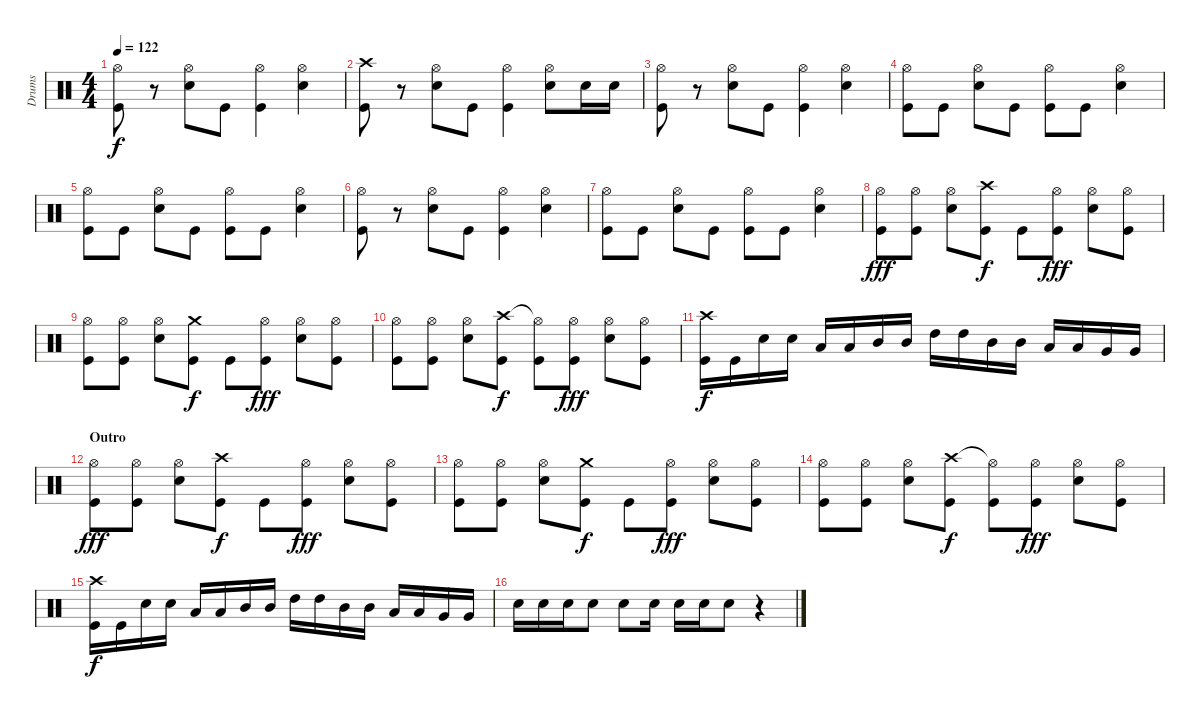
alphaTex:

\track ("Drums" "Drums") {instrument percussion}
\staff {score}
\articulation defaults
\ts (4 4)
\tempo 122
\clef neutral
\ks c
("Hi-Hat (open)" "Kick (hit)").8{dy f} r.8 ("Hi-Hat (open)" "Snare (hit) 2").8 "Kick (hit)".8 ("Hi-Hat (open)" "Kick (hit)").4 ("Hi-Hat (open)" "Snare (hit) 2").4 |
("Crash high (hit)" "Kick (hit)").8 r.8 ("Hi-Hat (open)" "Snare (hit) 2").8 "Kick (hit)".8 ("Hi-Hat (open)" "Kick (hit)").4 ("Hi-Hat (open)" "Snare (hit) 2").8 "Snare (hit) 2".16 "Snare (hit) 2".16 |
("Hi-Hat (open)" "Kick (hit)").8 r.8 ("Hi-Hat (open)" "Snare (hit) 2").8 "Kick (hit)".8 ("Hi-Hat (open)" "Kick (hit)").4 ("Hi-Hat (open)" "Snare (hit) 2").4 |
("Hi-Hat (open)" "Kick (hit)").8 "Kick (hit)".8 ("Hi-Hat (open)" "Snare (hit) 2").8 "Kick (hit)".8 ("Hi-Hat (open)" "Kick (hit)").8 "Kick (hit)".8 ("Hi-Hat (open)" "Snare (hit) 2").4 |
("Hi-Hat (open)" "Kick (hit)").8 "Kick (hit)".8 ("Hi-Hat (open)" "Snare (hit) 2").8 "Kick (hit)".8 ("Hi-Hat (open)" "Kick (hit)").8 "Kick (hit)".8 ("Hi-Hat (open)" "Snare (hit) 2").4 |
("Hi-Hat (open)" "Kick (hit)").8 r.8 ("Hi-Hat (open)" "Snare (hit) 2").8 "Kick (hit)".8 ("Hi-Hat (open)" "Kick (hit)").4 ("Hi-Hat (open)" "Snare (hit) 2").4 |
("Hi-Hat (open)" "Kick (hit)").8 "Kick (hit)".8 ("Hi-Hat (open)" "Snare (hit) 2").8 "Kick (hit)".8 ("Hi-Hat (open)" "Kick (hit)").8 "Kick (hit)".8 ("Hi-Hat (open)" "Snare (hit) 2").4 |
("Hi-Hat (open)" "Kick (hit)").8{dy fff} ("Hi-Hat (open)" "Kick (hit)").8 ("Hi-Hat (open)" "Snare (hit) 2").8 ("Crash high (hit)" "Kick (hit)").8{dy f} "Kick (hit)".8 ("Hi-Hat (open)" "Kick (hit)").8{dy fff} ("Hi-Hat (open)" "Snare (hit) 2").8 ("Hi-Hat (open)" "Kick (hit)").8 |
("Hi-Hat (open)" "Kick (hit)").8 ("Hi-Hat (open)" "Kick (hit)").8 ("Hi-Hat (open)" "Snare (hit) 2").8 ("Crash medium (hit)" "Kick (hit)").8{dy f} "Kick (hit)".8 ("Hi-Hat (open)" "Kick (hit)").8{dy fff} ("Hi-Hat (open)" "Snare (hit) 2").8 ("Hi-Hat (open)" "Kick (hit)").8 |
("Hi-Hat (open)" "Kick (hit)").8 ("Hi-Hat (open)" "Kick (hit)").8 ("Hi-Hat (open)" "Snare (hit) 2").8 ("Crash high (hit)" "Kick (hit)").8{dy f} ("Hi-Hat (open)"{t} "Kick (hit)").8 ("Hi-Hat (open)" "Kick (hit)").8{dy fff} ("Hi-Hat (open)" "Snare (hit) 2").8 ("Hi-Hat (open)" "Kick (hit)").8 |
("Crash high (hit)" "Kick (hit)").16{dy f} "Kick (hit)".16 "Snare (hit) 2".16 "Snare (hit) 2".16 "Low Tom (hit)".16 "Low Tom (hit)".16 "Mid Tom (hit)".16 "Mid Tom (hit)".16 "High Tom (hit)".16 "High Tom (hit)".16 "Mid Tom (hit)".16 "Mid Tom (hit)".16 "Low Tom (hit)".16 "Low Tom (hit)".16 "Very Low Tom (hit)".16 "Very Low Tom (hit)".16 |
\section ("" "Outro")
("Hi-Hat (open)" "Kick (hit)").8{dy fff} ("Hi-Hat (open)" "Kick (hit)").8 ("Hi-Hat (open)" "Snare (hit) 2").8 ("Crash high (hit)" "Kick (hit)").8{dy f} "Kick (hit)".8 ("Hi-Hat (open)" "Kick (hit)").8{dy fff} ("Hi-Hat (open)" "Snare (hit) 2").8 ("Hi-Hat (open)" "Kick (hit)").8 |
("Hi-Hat (open)" "Kick (hit)").8 ("Hi-Hat (open)" "Kick (hit)").8 ("Hi-Hat (open)" "Snare (hit) 2").8 ("Crash medium (hit)" "Kick (hit)").8{dy f} "Kick (hit)".8 ("Hi-Hat (open)" "Kick (hit)").8{dy fff} ("Hi-Hat (open)" "Snare (hit) 2").8 ("Hi-Hat (open)" "Kick (hit)").8 |
("Hi-Hat (open)" "Kick (hit)").8 ("Hi-Hat (open)" "Kick (hit)").8 ("Hi-Hat (open)" "Snare (hit) 2").8 ("Crash high (hit)" "Kick (hit)").8{dy f} ("Hi-Hat (open)"{t} "Kick (hit)").8 ("Hi-Hat (open)" "Kick (hit)").8{dy fff} ("Hi-Hat (open)" "Snare (hit) 2").8 ("Hi-Hat (open)" "Kick (hit)").8 |
("Crash high (hit)" "Kick (hit)").16{dy f} "Kick (hit)".16 "Snare (hit) 2".16 "Snare (hit) 2".16 "Low Tom (hit)".16 "Low Tom (hit)".16 "Mid Tom (hit)".16 "Mid Tom (hit)".16 "High Tom (hit)".16 "High Tom (hit)".16 "Mid Tom (hit)".16 "Mid Tom (hit)".16 "Low Tom (hit)".16 "Low Tom (hit)".16 "Very Low Tom (hit)".16 "Very Low Tom (hit)".16 |
"Snare (hit) 2".16 "Snare (hit) 2".16 "Snare (hit) 2".16 "Snare (hit) 2".8 "Snare (hit) 2".8 "Snare (hit) 2".16 "Snare (hit) 2".16 "Snare (hit) 2".16 "Snare (hit) 2".8 r.4
